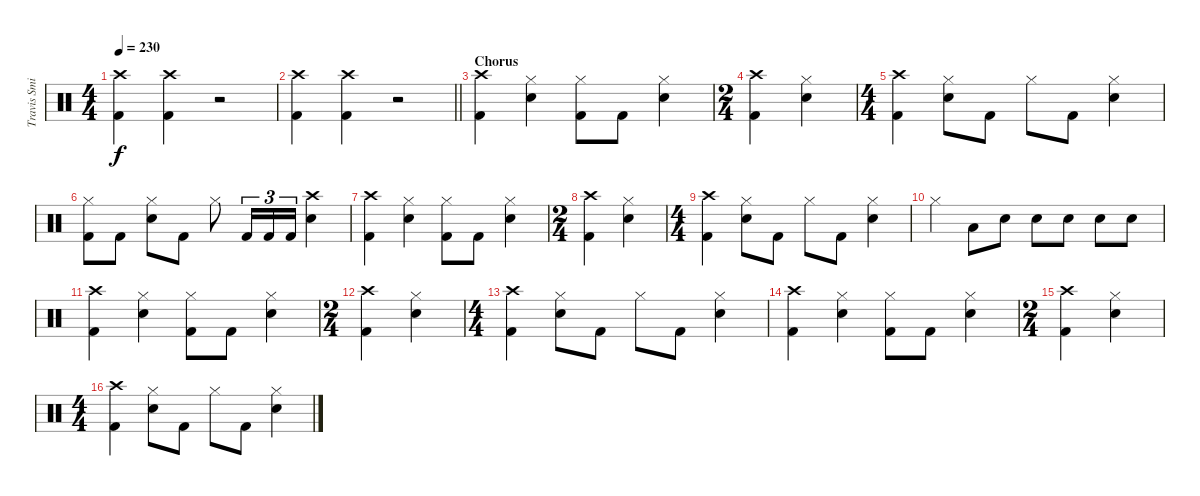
\track ("Travis Smith (Drums)" "Travis Smi") {instrument percussion}
\staff {score}
\articulation defaults
\ts (4 4)
\tempo 230
\clef neutral
\ks c
("Crash high (hit)" "Kick (hit) 2").4{dy f} ("Crash high (hit)" "Kick (hit) 2").4 r.2 |
\barLineRight lightlight
("Crash high (hit)" "Kick (hit) 2").4 ("Crash high (hit)" "Kick (hit) 2").4 r.2 |
\section ("" "Chorus")
("Crash high (hit)" "Kick (hit) 2").4 ("Hi-Hat (closed)" "Electric Snare (hit)").4 ("Hi-Hat (closed)" "Kick (hit) 2").8 "Kick (hit) 2".8 ("Hi-Hat (closed)" "Electric Snare (hit)").4 |
\ts (2 4)
("Crash high (hit)" "Kick (hit) 2").4 ("Hi-Hat (closed)" "Electric Snare (hit)").4 |
\ts (4 4)
("Crash high (hit)" "Kick (hit) 2").4 ("Hi-Hat (closed)" "Electric Snare (hit)").8 "Kick (hit) 2".8 "Hi-Hat (closed)".8 "Kick (hit) 2".8 ("Hi-Hat (closed)" "Electric Snare (hit)").4 |
("Hi-Hat (closed)" "Kick (hit) 2").8 "Kick (hit) 2".8 ("Hi-Hat (closed)" "Electric Snare (hit)").8 "Kick (hit) 2".8 "Hi-Hat (closed)".8 "Kick (hit) 2".16{tu (3 2)} "Kick (hit) 2".16{tu (3 2)} "Kick (hit) 2".16{tu (3 2)} ("Crash high (hit)" "Electric Snare (hit)").4 |
("Crash high (hit)" "Kick (hit) 2").4 ("Hi-Hat (closed)" "Electric Snare (hit)").4 ("Hi-Hat (closed)" "Kick (hit) 2").8 "Kick (hit) 2".8 ("Hi-Hat (closed)" "Electric Snare (hit)").4 |
\ts (2 4)
("Crash high (hit)" "Kick (hit) 2").4 ("Hi-Hat (closed)" "Electric Snare (hit)").4 |
\ts (4 4)
("Crash high (hit)" "Kick (hit) 2").4 ("Hi-Hat (closed)" "Electric Snare (hit)").8 "Kick (hit) 2".8 "Hi-Hat (closed)".8 "Kick (hit) 2".8 ("Hi-Hat (closed)" "Electric Snare (hit)").4 |
"Hi-Hat (closed)".4 "Low Floor Tom (hit)".8 "Electric Snare (hit)".8 "Electric Snare (hit)".8 "Electric Snare (hit)".8 "Electric Snare (hit)".8 "Electric Snare (hit)".8 |
("Crash high (hit)" "Kick (hit) 2").4 ("Hi-Hat (closed)" "Electric Snare (hit)").4 ("Hi-Hat (closed)" "Kick (hit) 2").8 "Kick (hit) 2".8 ("Hi-Hat (closed)" "Electric Snare (hit)").4 |
\ts (2 4)
("Crash high (hit)" "Kick (hit) 2").4 ("Hi-Hat (closed)" "Electric Snare (hit)").4 |
\ts (4 4)
("Crash high (hit)" "Kick (hit) 2").4 ("Hi-Hat (closed)" "Electric Snare (hit)").8 "Kick (hit) 2".8 "Hi-Hat (closed)".8 "Kick (hit) 2".8 ("Hi-Hat (closed)" "Electric Snare (hit)").4 |
("Crash high (hit)" "Kick (hit) 2").4 ("Hi-Hat (closed)" "Electric Snare (hit)").4 ("Hi-Hat (closed)" "Kick (hit) 2").8 "Kick (hit) 2".8 ("Hi-Hat (closed)" "Electric Snare (hit)").4 |
\ts (2 4)
("Crash high (hit)" "Kick (hit) 2").4 ("Hi-Hat (closed)" "Electric Snare (hit)").4 |
\ts (4 4)
("Crash high (hit)" "Kick (hit) 2").4 ("Hi-Hat (closed)" "Electric Snare (hit)").8 "Kick (hit) 2".8 "Hi-Hat (closed)".8 "Kick (hit) 2".8 ("Hi-Hat (closed)" "Electric Snare (hit)").4
